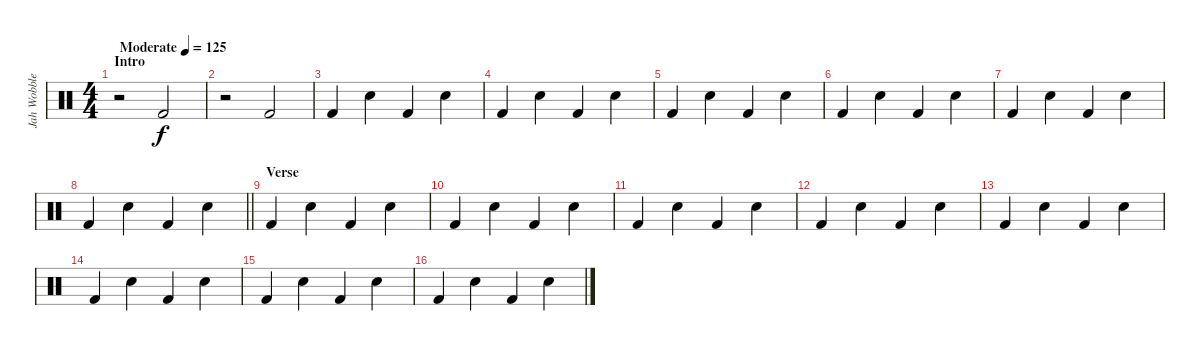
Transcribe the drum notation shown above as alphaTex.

\track ("Jah Wobble  (drums)" "Jah Wobble") {instrument percussion}
\staff {score}
\articulation defaults
\ts (4 4)
\section ("" "Intro")
\tempo (125 "Moderate")
\clef neutral
\ks c
r.2{dy f} "Kick (hit) 2".2 |
r.2 "Kick (hit) 2".2 |
"Kick (hit) 2".4 "Electric Snare (hit)".4 "Kick (hit) 2".4 "Electric Snare (hit)".4 |
"Kick (hit) 2".4 "Electric Snare (hit)".4 "Kick (hit) 2".4 "Electric Snare (hit)".4 |
"Kick (hit) 2".4 "Electric Snare (hit)".4 "Kick (hit) 2".4 "Electric Snare (hit)".4 |
"Kick (hit) 2".4 "Electric Snare (hit)".4 "Kick (hit) 2".4 "Electric Snare (hit)".4 |
"Kick (hit) 2".4 "Electric Snare (hit)".4 "Kick (hit) 2".4 "Electric Snare (hit)".4 |
\barLineRight lightlight "Kick (hit) 2".4 "Electric Snare (hit)".4 "Kick (hit) 2".4 "Electric Snare (hit)".4
|
\section ("" "Verse")
"Kick (hit) 2".4 "Electric Snare (hit)".4 "Kick (hit) 2".4 "Electric Snare (hit)".4 |
"Kick (hit) 2".4 "Electric Snare (hit)".4 "Kick (hit) 2".4 "Electric Snare (hit)".4 |
"Kick (hit) 2".4 "Electric Snare (hit)".4 "Kick (hit) 2".4 "Electric Snare (hit)".4 |
"Kick (hit) 2".4 "Electric Snare (hit)".4 "Kick (hit) 2".4 "Electric Snare (hit)".4 |
"Kick (hit) 2".4 "Electric Snare (hit)".4 "Kick (hit) 2".4 "Electric Snare (hit)".4 |
"Kick (hit) 2".4 "Electric Snare (hit)".4 "Kick (hit) 2".4 "Electric Snare (hit)".4 |
"Kick (hit) 2".4 "Electric Snare (hit)".4 "Kick (hit) 2".4 "Electric Snare (hit)".4 |
"Kick (hit) 2".4 "Electric Snare (hit)".4 "Kick (hit) 2".4 "Electric Snare (hit)".4
